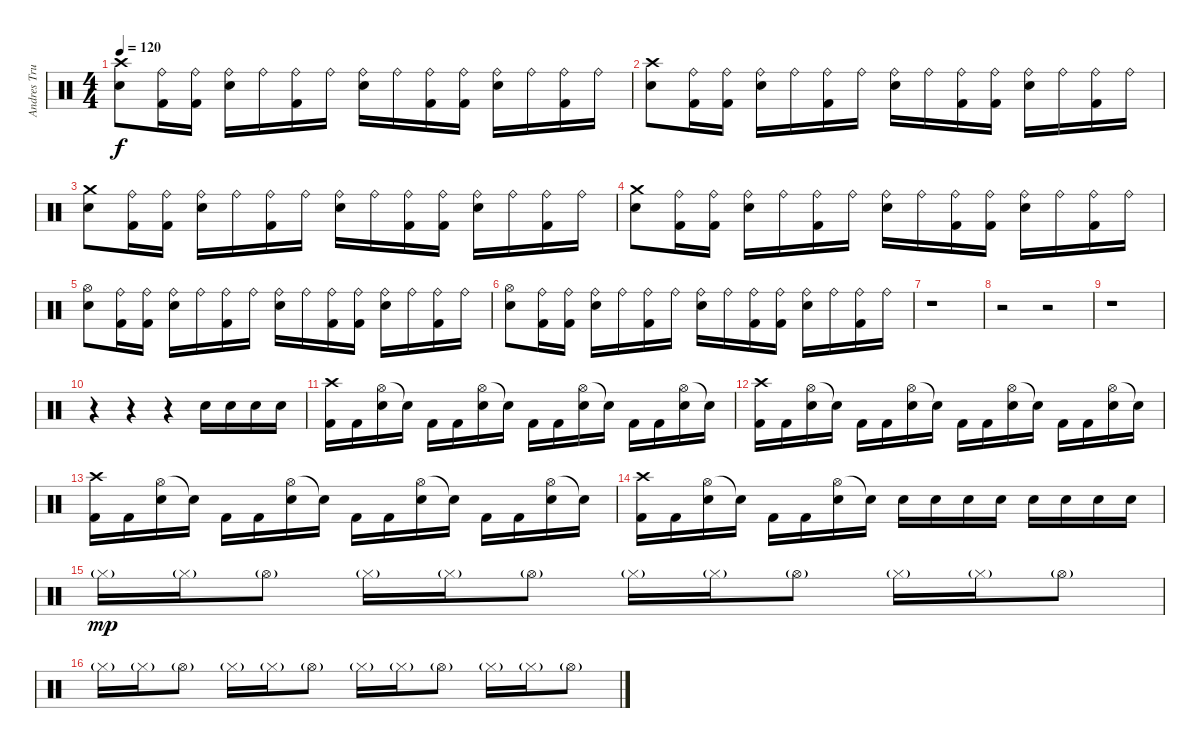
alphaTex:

\track ("Andres Trujillo" "Andres Tru") {instrument percussion}
\staff {score}
\articulation defaults
\ts (4 4)
\tempo 120
\clef neutral
\ks c
("Crash high (hit)" "Electric Snare (hit)").8{dy f} ("Ride (bell)" "Kick (hit) 2").16 ("Ride (bell)" "Kick (hit) 2").16 ("Ride (bell)" "Electric Snare (hit)").16 "Ride (bell)".16 ("Ride (bell)" "Kick (hit) 2").16 "Ride (bell)".16 ("Ride (bell)" "Electric Snare (hit)").16 "Ride (bell)".16 ("Ride (bell)" "Kick (hit) 2").16 ("Ride (bell)" "Kick (hit) 2").16 ("Ride (bell)" "Electric Snare (hit)").16 "Ride (bell)".16 ("Ride (bell)" "Kick (hit) 2").16 "Ride (bell)".16 |
("Crash high (hit)" "Electric Snare (hit)").8 ("Ride (bell)" "Kick (hit) 2").16 ("Ride (bell)" "Kick (hit) 2").16 ("Ride (bell)" "Electric Snare (hit)").16 "Ride (bell)".16 ("Ride (bell)" "Kick (hit) 2").16 "Ride (bell)".16 ("Ride (bell)" "Electric Snare (hit)").16 "Ride (bell)".16 ("Ride (bell)" "Kick (hit) 2").16 ("Ride (bell)" "Kick (hit) 2").16 ("Ride (bell)" "Electric Snare (hit)").16 "Ride (bell)".16 ("Ride (bell)" "Kick (hit) 2").16 "Ride (bell)".16 |
("Crash medium (hit)" "Electric Snare (hit)").8 ("Ride (bell)" "Kick (hit) 2").16 ("Ride (bell)" "Kick (hit) 2").16 ("Ride (bell)" "Electric Snare (hit)").16 "Ride (bell)".16 ("Ride (bell)" "Kick (hit) 2").16 "Ride (bell)".16 ("Ride (bell)" "Electric Snare (hit)").16 "Ride (bell)".16 ("Ride (bell)" "Kick (hit) 2").16 ("Ride (bell)" "Kick (hit) 2").16 ("Ride (bell)" "Electric Snare (hit)").16 "Ride (bell)".16 ("Ride (bell)" "Kick (hit) 2").16 "Ride (bell)".16 |
("Crash medium (hit)" "Electric Snare (hit)").8 ("Ride (bell)" "Kick (hit) 2").16 ("Ride (bell)" "Kick (hit) 2").16 ("Ride (bell)" "Electric Snare (hit)").16 "Ride (bell)".16 ("Ride (bell)" "Kick (hit) 2").16 "Ride (bell)".16 ("Ride (bell)" "Electric Snare (hit)").16 "Ride (bell)".16 ("Ride (bell)" "Kick (hit) 2").16 ("Ride (bell)" "Kick (hit) 2").16 ("Ride (bell)" "Electric Snare (hit)").16 "Ride (bell)".16 ("Ride (bell)" "Kick (hit) 2").16 "Ride (bell)".16 |
("Hi-Hat (open)" "Electric Snare (hit)").8 ("Ride (bell)" "Kick (hit) 2").16 ("Ride (bell)" "Kick (hit) 2").16 ("Ride (bell)" "Electric Snare (hit)").16 "Ride (bell)".16 ("Ride (bell)" "Kick (hit) 2").16 "Ride (bell)".16 ("Ride (bell)" "Electric Snare (hit)").16 "Ride (bell)".16 ("Ride (bell)" "Kick (hit) 2").16 ("Ride (bell)" "Kick (hit) 2").16 ("Ride (bell)" "Electric Snare (hit)").16 "Ride (bell)".16 ("Ride (bell)" "Kick (hit) 2").16 "Ride (bell)".16 |
("Hi-Hat (open)" "Electric Snare (hit)").8 ("Ride (bell)" "Kick (hit) 2").16 ("Ride (bell)" "Kick (hit) 2").16 ("Ride (bell)" "Electric Snare (hit)").16 "Ride (bell)".16 ("Ride (bell)" "Kick (hit) 2").16 "Ride (bell)".16 ("Ride (bell)" "Electric Snare (hit)").16 "Ride (bell)".16 ("Ride (bell)" "Kick (hit) 2").16 ("Ride (bell)" "Kick (hit) 2").16 ("Ride (bell)" "Electric Snare (hit)").16 "Ride (bell)".16 ("Ride (bell)" "Kick (hit) 2").16 "Ride (bell)".16 |
r.1 |
r.2 r.2 |
r.1 |
r.4 r.4 r.4 "Electric Snare (hit)".16 "Electric Snare (hit)".16 "Electric Snare (hit)".16 "Electric Snare (hit)".16 |
("Crash high (hit)" "Kick (hit) 2").16 "Kick (hit) 2".16 ("Hi-Hat (open)" "Electric Snare (hit)").16 "Snare (hit)"{t}.16 "Kick (hit) 2".16 "Kick (hit) 2".16 ("Hi-Hat (open)" "Electric Snare (hit)").16 "Snare (hit)"{t}.16 "Kick (hit) 2".16 "Kick (hit) 2".16 ("Hi-Hat (open)" "Electric Snare (hit)").16 "Snare (hit)"{t}.16 "Kick (hit) 2".16 "Kick (hit) 2".16 ("Hi-Hat (open)" "Electric Snare (hit)").16 "Snare (hit)"{t}.16 |
("Crash high (hit)" "Kick (hit) 2").16 "Kick (hit) 2".16 ("Hi-Hat (open)" "Electric Snare (hit)").16 "Snare (hit)"{t}.16 "Kick (hit) 2".16 "Kick (hit) 2".16 ("Hi-Hat (open)" "Electric Snare (hit)").16 "Snare (hit)"{t}.16 "Kick (hit) 2".16 "Kick (hit) 2".16 ("Hi-Hat (open)" "Electric Snare (hit)").16 "Snare (hit)"{t}.16 "Kick (hit) 2".16 "Kick (hit) 2".16 ("Hi-Hat (open)" "Electric Snare (hit)").16 "Snare (hit)"{t}.16 |
("Crash high (hit)" "Kick (hit) 2").16 "Kick (hit) 2".16 ("Hi-Hat (open)" "Electric Snare (hit)").16 "Snare (hit)"{t}.16 "Kick (hit) 2".16 "Kick (hit) 2".16 ("Hi-Hat (open)" "Electric Snare (hit)").16 "Snare (hit)"{t}.16 "Kick (hit) 2".16 "Kick (hit) 2".16 ("Hi-Hat (open)" "Electric Snare (hit)").16 "Snare (hit)"{t}.16 "Kick (hit) 2".16 "Kick (hit) 2".16 ("Hi-Hat (open)" "Electric Snare (hit)").16 "Snare (hit)"{t}.16 |
("Crash high (hit)" "Kick (hit) 2").16 "Kick (hit) 2".16 ("Hi-Hat (open)" "Electric Snare (hit)").16 "Snare (hit)"{t}.16 "Kick (hit) 2".16 "Kick (hit) 2".16 ("Hi-Hat (open)" "Electric Snare (hit)").16 "Snare (hit)"{t}.16 "Electric Snare (hit)".16 "Electric Snare (hit)".16 "Electric Snare (hit)".16 "Electric Snare (hit)".16 "Electric Snare (hit)".16 "Electric Snare (hit)".16 "Electric Snare (hit)".16 "Electric Snare (hit)".16 |
"Hi-Hat (closed)"{g}.16{dy mp} "Hi-Hat (closed)"{g}.16 "Hi-Hat (open)"{g}.8 "Hi-Hat (closed)"{g}.16 "Hi-Hat (closed)"{g}.16 "Hi-Hat (open)"{g}.8 "Hi-Hat (closed)"{g}.16 "Hi-Hat (closed)"{g}.16 "Hi-Hat (open)"{g}.8 "Hi-Hat (closed)"{g}.16 "Hi-Hat (closed)"{g}.16 "Hi-Hat (open)"{g}.8 |
"Hi-Hat (closed)"{g}.16 "Hi-Hat (closed)"{g}.16 "Hi-Hat (open)"{g}.8 "Hi-Hat (closed)"{g}.16 "Hi-Hat (closed)"{g}.16 "Hi-Hat (open)"{g}.8 "Hi-Hat (closed)"{g}.16 "Hi-Hat (closed)"{g}.16 "Hi-Hat (open)"{g}.8 "Hi-Hat (closed)"{g}.16 "Hi-Hat (closed)"{g}.16 "Hi-Hat (open)"{g}.8
